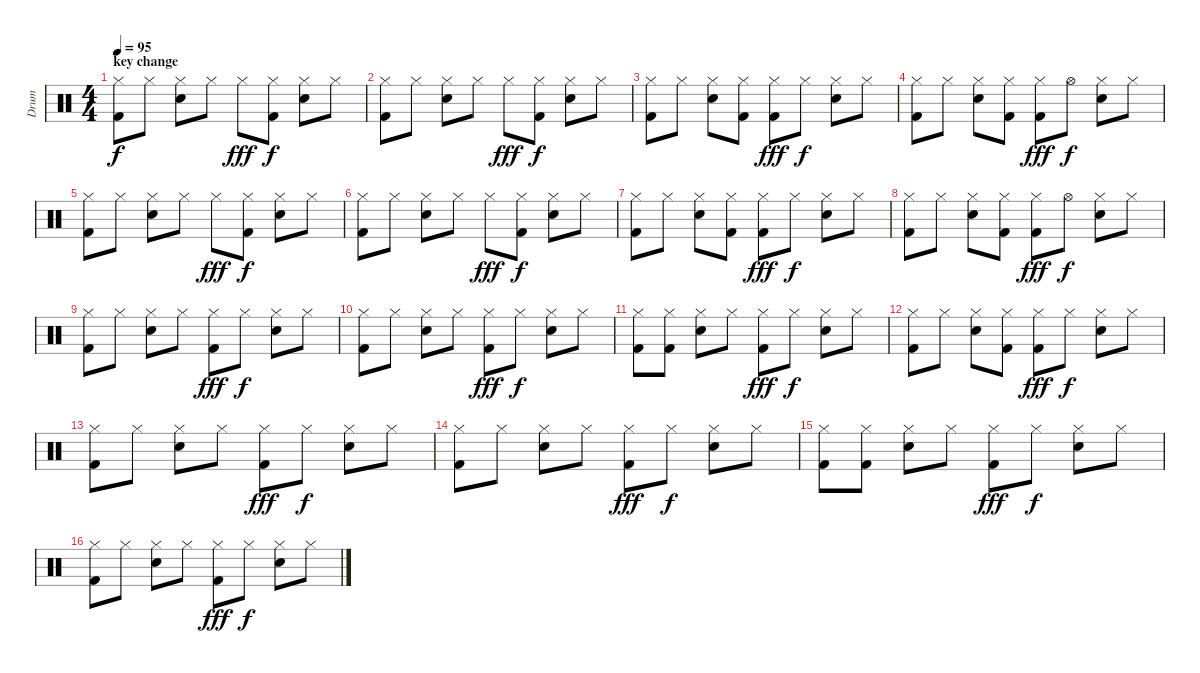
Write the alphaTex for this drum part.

\track ("Drum" "Drum") {instrument percussion}
\staff {score}
\articulation defaults
\ts (4 4)
\section ("" "key change")
\tempo 95
\clef neutral
\ks c
("Hi-Hat (closed)" "Kick (hit) 2").8{dy f} "Hi-Hat (closed)".8 ("Hi-Hat (closed)" "Snare (hit) 2").8 "Hi-Hat (closed)".8 "Hi-Hat (closed)".8{dy fff} ("Hi-Hat (closed)" "Kick (hit) 2").8{dy f} ("Hi-Hat (closed)" "Snare (hit) 2").8 "Hi-Hat (closed)".8 |
("Hi-Hat (closed)" "Kick (hit) 2").8 "Hi-Hat (closed)".8 ("Hi-Hat (closed)" "Snare (hit) 2").8 "Hi-Hat (closed)".8 "Hi-Hat (closed)".8{dy fff} ("Hi-Hat (closed)" "Kick (hit) 2").8{dy f} ("Hi-Hat (closed)" "Snare (hit) 2").8 "Hi-Hat (closed)".8 |
("Hi-Hat (closed)" "Kick (hit) 2").8 "Hi-Hat (closed)".8 ("Hi-Hat (closed)" "Snare (hit) 2").8 ("Hi-Hat (closed)" "Kick (hit) 2").8 ("Hi-Hat (closed)" "Kick (hit) 2").8{dy fff} "Hi-Hat (closed)".8{dy f} ("Hi-Hat (closed)" "Snare (hit) 2").8 "Hi-Hat (closed)".8 |
("Hi-Hat (closed)" "Kick (hit) 2").8 "Hi-Hat (closed)".8 ("Hi-Hat (closed)" "Snare (hit) 2").8 ("Hi-Hat (closed)" "Kick (hit) 2").8 ("Hi-Hat (closed)" "Kick (hit) 2").8{dy fff} "Hi-Hat (open)".8{dy f} ("Hi-Hat (closed)" "Snare (hit) 2").8 "Hi-Hat (closed)".8 |
("Hi-Hat (closed)" "Kick (hit) 2").8 "Hi-Hat (closed)".8 ("Hi-Hat (closed)" "Snare (hit) 2").8 "Hi-Hat (closed)".8 "Hi-Hat (closed)".8{dy fff} ("Hi-Hat (closed)" "Kick (hit) 2").8{dy f} ("Hi-Hat (closed)" "Snare (hit) 2").8 "Hi-Hat (closed)".8 |
("Hi-Hat (closed)" "Kick (hit) 2").8 "Hi-Hat (closed)".8 ("Hi-Hat (closed)" "Snare (hit) 2").8 "Hi-Hat (closed)".8 "Hi-Hat (closed)".8{dy fff} ("Hi-Hat (closed)" "Kick (hit) 2").8{dy f} ("Hi-Hat (closed)" "Snare (hit) 2").8 "Hi-Hat (closed)".8 |
("Hi-Hat (closed)" "Kick (hit) 2").8 "Hi-Hat (closed)".8 ("Hi-Hat (closed)" "Snare (hit) 2").8 ("Hi-Hat (closed)" "Kick (hit) 2").8 ("Hi-Hat (closed)" "Kick (hit) 2").8{dy fff} "Hi-Hat (closed)".8{dy f} ("Hi-Hat (closed)" "Snare (hit) 2").8 "Hi-Hat (closed)".8 |
("Hi-Hat (closed)" "Kick (hit) 2").8 "Hi-Hat (closed)".8 ("Hi-Hat (closed)" "Snare (hit) 2").8 ("Hi-Hat (closed)" "Kick (hit) 2").8 ("Hi-Hat (closed)" "Kick (hit) 2").8{dy fff} "Hi-Hat (open)".8{dy f} ("Hi-Hat (closed)" "Snare (hit) 2").8 "Hi-Hat (closed)".8 |
("Hi-Hat (closed)" "Kick (hit) 2").8 "Hi-Hat (closed)".8 ("Hi-Hat (closed)" "Snare (hit) 2").8 "Hi-Hat (closed)".8 ("Hi-Hat (closed)" "Kick (hit) 2").8{dy fff} "Hi-Hat (closed)".8{dy f} ("Hi-Hat (closed)" "Snare (hit) 2").8 "Hi-Hat (closed)".8 |
("Hi-Hat (closed)" "Kick (hit) 2").8 "Hi-Hat (closed)".8 ("Hi-Hat (closed)" "Snare (hit) 2").8 "Hi-Hat (closed)".8 ("Hi-Hat (closed)" "Kick (hit) 2").8{dy fff} "Hi-Hat (closed)".8{dy f} ("Hi-Hat (closed)" "Snare (hit) 2").8 "Hi-Hat (closed)".8 |
("Hi-Hat (closed)" "Kick (hit) 2").8 ("Hi-Hat (closed)" "Kick (hit) 2").8 ("Hi-Hat (closed)" "Snare (hit) 2").8 "Hi-Hat (closed)".8 ("Hi-Hat (closed)" "Kick (hit) 2").8{dy fff} "Hi-Hat (closed)".8{dy f} ("Hi-Hat (closed)" "Snare (hit) 2").8 "Hi-Hat (closed)".8 |
("Hi-Hat (closed)" "Kick (hit) 2").8 "Hi-Hat (closed)".8 ("Hi-Hat (closed)" "Snare (hit) 2").8 ("Hi-Hat (closed)" "Kick (hit) 2").8 ("Hi-Hat (closed)" "Kick (hit) 2").8{dy fff} "Hi-Hat (closed)".8{dy f} ("Hi-Hat (closed)" "Snare (hit) 2").8 "Hi-Hat (closed)".8 |
("Hi-Hat (closed)" "Kick (hit) 2").8 "Hi-Hat (closed)".8 ("Hi-Hat (closed)" "Snare (hit) 2").8 "Hi-Hat (closed)".8 ("Hi-Hat (closed)" "Kick (hit) 2").8{dy fff} "Hi-Hat (closed)".8{dy f} ("Hi-Hat (closed)" "Snare (hit) 2").8 "Hi-Hat (closed)".8 |
("Hi-Hat (closed)" "Kick (hit) 2").8 "Hi-Hat (closed)".8 ("Hi-Hat (closed)" "Electric Snare (hit)").8 "Hi-Hat (closed)".8 ("Hi-Hat (closed)" "Kick (hit) 2").8{dy fff} "Hi-Hat (closed)".8{dy f} ("Hi-Hat (closed)" "Electric Snare (hit)").8 "Hi-Hat (closed)".8 |
("Hi-Hat (closed)" "Kick (hit) 2").8 ("Hi-Hat (closed)" "Kick (hit) 2").8 ("Hi-Hat (closed)" "Electric Snare (hit)").8 "Hi-Hat (closed)".8 ("Hi-Hat (closed)" "Kick (hit) 2").8{dy fff} "Hi-Hat (closed)".8{dy f} ("Hi-Hat (closed)" "Electric Snare (hit)").8 "Hi-Hat (closed)".8 |
("Hi-Hat (closed)" "Kick (hit) 2").8 "Hi-Hat (closed)".8 ("Hi-Hat (closed)" "Electric Snare (hit)").8 "Hi-Hat (closed)".8 ("Hi-Hat (closed)" "Kick (hit) 2").8{dy fff} "Hi-Hat (closed)".8{dy f} ("Hi-Hat (closed)" "Electric Snare (hit)").8 "Hi-Hat (closed)".8
